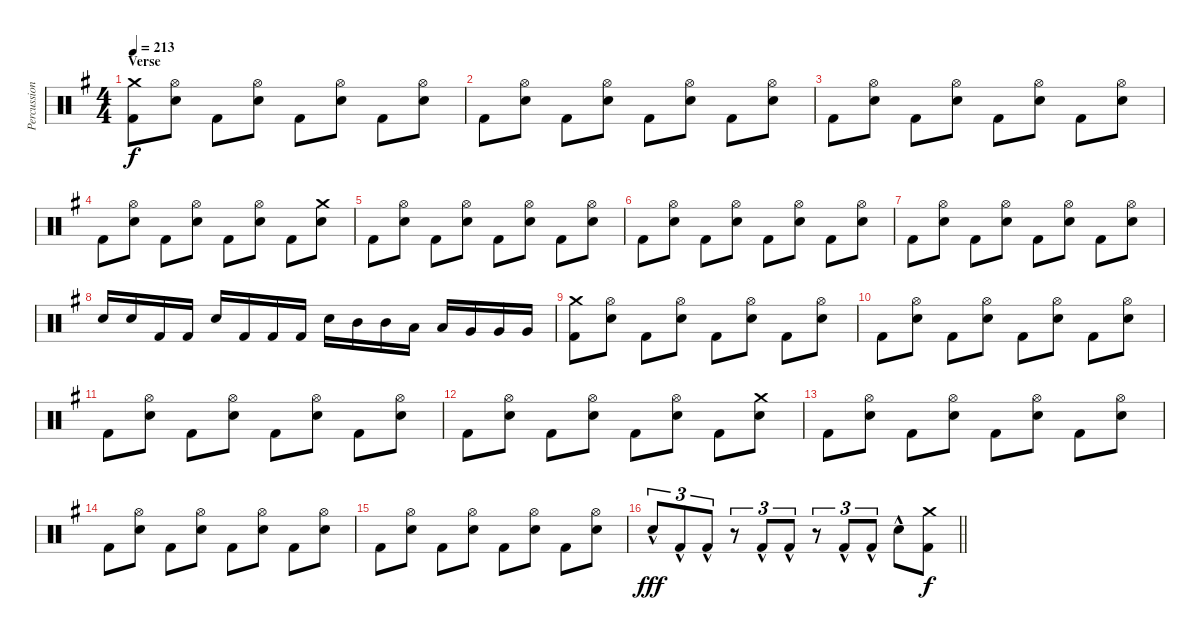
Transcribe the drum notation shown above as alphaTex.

\track ("Percussion" "Percussion") {instrument percussion}
\staff {score}
\articulation defaults
\ts (4 4)
\section ("" "Verse")
\tempo 213
\clef neutral
\ks eminor
("Crash medium (hit)" "Kick (hit) 2").8{dy f} ("Hi-Hat (open)" "Snare (hit) 2").8 "Kick (hit) 2".8 ("Hi-Hat (open)" "Snare (hit) 2").8 "Kick (hit) 2".8 ("Hi-Hat (open)" "Snare (hit) 2").8 "Kick (hit) 2".8 ("Hi-Hat (open)" "Snare (hit) 2").8 |
"Kick (hit) 2".8 ("Hi-Hat (open)" "Snare (hit) 2").8 "Kick (hit) 2".8 ("Hi-Hat (open)" "Snare (hit) 2").8 "Kick (hit) 2".8 ("Hi-Hat (open)" "Snare (hit) 2").8 "Kick (hit) 2".8 ("Hi-Hat (open)" "Snare (hit) 2").8 |
"Kick (hit) 2".8 ("Hi-Hat (open)" "Snare (hit) 2").8 "Kick (hit) 2".8 ("Hi-Hat (open)" "Snare (hit) 2").8 "Kick (hit) 2".8 ("Hi-Hat (open)" "Snare (hit) 2").8 "Kick (hit) 2".8 ("Hi-Hat (open)" "Snare (hit) 2").8 |
"Kick (hit) 2".8 ("Hi-Hat (open)" "Snare (hit) 2").8 "Kick (hit) 2".8 ("Hi-Hat (open)" "Snare (hit) 2").8 "Kick (hit) 2".8 ("Hi-Hat (open)" "Snare (hit) 2").8 "Kick (hit) 2".8 ("Crash medium (hit)" "Snare (hit) 2").8 |
"Kick (hit) 2".8 ("Hi-Hat (open)" "Snare (hit) 2").8 "Kick (hit) 2".8 ("Hi-Hat (open)" "Snare (hit) 2").8 "Kick (hit) 2".8 ("Hi-Hat (open)" "Snare (hit) 2").8 "Kick (hit) 2".8 ("Hi-Hat (open)" "Snare (hit) 2").8 |
"Kick (hit) 2".8 ("Hi-Hat (open)" "Snare (hit) 2").8 "Kick (hit) 2".8 ("Hi-Hat (open)" "Snare (hit) 2").8 "Kick (hit) 2".8 ("Hi-Hat (open)" "Snare (hit) 2").8 "Kick (hit) 2".8 ("Hi-Hat (open)" "Snare (hit) 2").8 |
"Kick (hit) 2".8 ("Hi-Hat (open)" "Snare (hit) 2").8 "Kick (hit) 2".8 ("Hi-Hat (open)" "Snare (hit) 2").8 "Kick (hit) 2".8 ("Hi-Hat (open)" "Snare (hit) 2").8 "Kick (hit) 2".8 ("Hi-Hat (open)" "Snare (hit) 2").8 |
"Snare (hit) 2".16 "Snare (hit) 2".16 "Kick (hit) 2".16 "Kick (hit) 2".16 "Snare (hit) 2".16 "Kick (hit) 2".16 "Kick (hit) 2".16 "Kick (hit) 2".16 "Snare (hit) 2".16 "Mid Tom (hit)".16 "Mid Tom (hit)".16 "Low Tom (hit)".16 "Low Tom (hit)".16 "Very Low Tom (hit)".16 "Very Low Tom (hit)".16 "Very Low Tom (hit)".16 |
("Crash medium (hit)" "Kick (hit) 2").8 ("Hi-Hat (open)" "Snare (hit) 2").8 "Kick (hit) 2".8 ("Hi-Hat (open)" "Snare (hit) 2").8 "Kick (hit) 2".8 ("Hi-Hat (open)" "Snare (hit) 2").8 "Kick (hit) 2".8 ("Hi-Hat (open)" "Snare (hit) 2").8 |
"Kick (hit) 2".8 ("Hi-Hat (open)" "Snare (hit) 2").8 "Kick (hit) 2".8 ("Hi-Hat (open)" "Snare (hit) 2").8 "Kick (hit) 2".8 ("Hi-Hat (open)" "Snare (hit) 2").8 "Kick (hit) 2".8 ("Hi-Hat (open)" "Snare (hit) 2").8 |
"Kick (hit) 2".8 ("Hi-Hat (open)" "Snare (hit) 2").8 "Kick (hit) 2".8 ("Hi-Hat (open)" "Snare (hit) 2").8 "Kick (hit) 2".8 ("Hi-Hat (open)" "Snare (hit) 2").8 "Kick (hit) 2".8 ("Hi-Hat (open)" "Snare (hit) 2").8 |
"Kick (hit) 2".8 ("Hi-Hat (open)" "Snare (hit) 2").8 "Kick (hit) 2".8 ("Hi-Hat (open)" "Snare (hit) 2").8 "Kick (hit) 2".8 ("Hi-Hat (open)" "Snare (hit) 2").8 "Kick (hit) 2".8 ("Crash medium (hit)" "Snare (hit) 2").8 |
"Kick (hit) 2".8 ("Hi-Hat (open)" "Snare (hit) 2").8 "Kick (hit) 2".8 ("Hi-Hat (open)" "Snare (hit) 2").8 "Kick (hit) 2".8 ("Hi-Hat (open)" "Snare (hit) 2").8 "Kick (hit) 2".8 ("Hi-Hat (open)" "Snare (hit) 2").8 |
"Kick (hit) 2".8 ("Hi-Hat (open)" "Snare (hit) 2").8 "Kick (hit) 2".8 ("Hi-Hat (open)" "Snare (hit) 2").8 "Kick (hit) 2".8 ("Hi-Hat (open)" "Snare (hit) 2").8 "Kick (hit) 2".8 ("Hi-Hat (open)" "Snare (hit) 2").8 |
"Kick (hit) 2".8 ("Hi-Hat (open)" "Snare (hit) 2").8 "Kick (hit) 2".8 ("Hi-Hat (open)" "Snare (hit) 2").8 "Kick (hit) 2".8 ("Hi-Hat (open)" "Snare (hit) 2").8 "Kick (hit) 2".8 ("Hi-Hat (open)" "Snare (hit) 2").8 |
\barLineRight lightlight "Snare (hit) 2"{hac}.8{tu (3 2) dy fff} "Kick (hit) 2"{hac}.8{tu (3 2)} "Kick (hit) 2"{hac}.8{tu (3 2)}
r.8{tu (3 2)} "Kick (hit) 2"{hac}.8{tu (3 2)} "Kick (hit) 2"{hac}.8{tu (3 2)} r.8{tu (3 2)} "Kick (hit) 2"{hac}.8{tu (3 2)} "Kick (hit) 2"{hac}.8{tu (3 2)} "Snare (hit) 2"{hac}.8 ("Crash medium (hit)" "Kick (hit) 2").8{dy f}
